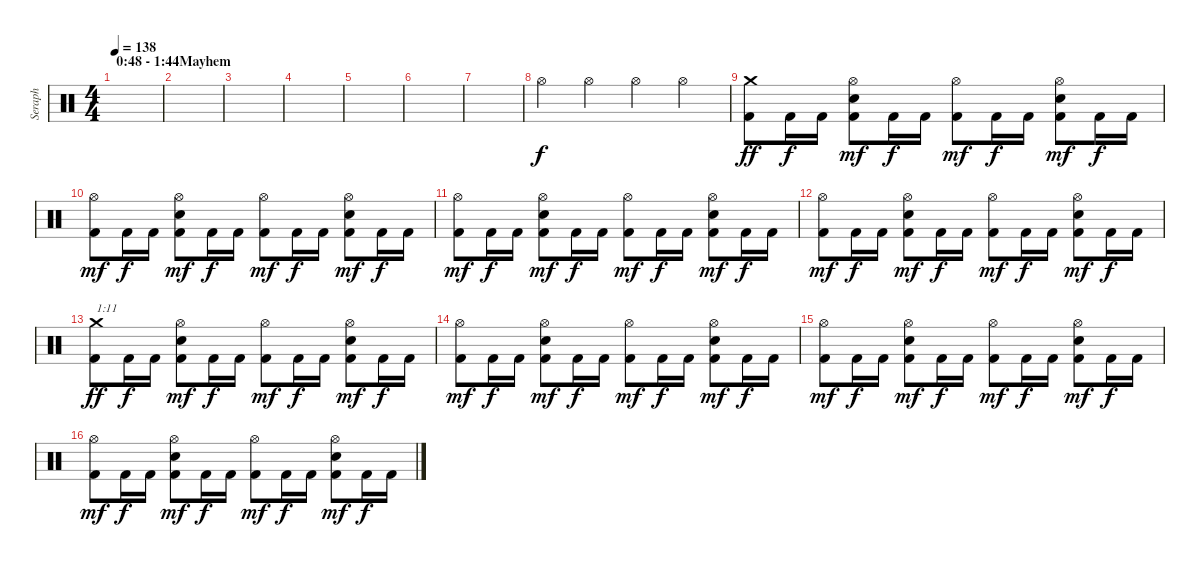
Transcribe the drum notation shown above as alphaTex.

\track ("Seraph" "Seraph") {instrument percussion}
\staff {score}
\articulation defaults
\ts (4 4)
\section ("" "0:48 - 1:44Mayhem")
\tempo 138
\clef neutral
\ks c
|
|
|
|
|
|
|
"Hi-Hat (open)".4 "Hi-Hat (open)".4 "Hi-Hat (open)".4 "Hi-Hat (open)".4 |
("Kick (hit) 2" "Crash medium (hit)").8{dy ff} "Kick (hit) 2".16{dy f} "Kick (hit) 2".16 ("Kick (hit) 2" "Electric Snare (hit)" "Hi-Hat (open)").8{dy mf} "Kick (hit) 2".16{dy f} "Kick (hit) 2".16 ("Kick (hit) 2" "Hi-Hat (open)").8{dy mf} "Kick (hit) 2".16{dy f} "Kick (hit) 2".16 ("Kick (hit) 2" "Electric Snare (hit)" "Hi-Hat (open)").8{dy mf} "Kick (hit) 2".16{dy f} "Kick (hit) 2".16 |
("Kick (hit) 2" "Hi-Hat (open)").8{dy mf} "Kick (hit) 2".16{dy f} "Kick (hit) 2".16 ("Kick (hit) 2" "Electric Snare (hit)" "Hi-Hat (open)").8{dy mf} "Kick (hit) 2".16{dy f} "Kick (hit) 2".16 ("Kick (hit) 2" "Hi-Hat (open)").8{dy mf} "Kick (hit) 2".16{dy f} "Kick (hit) 2".16 ("Kick (hit) 2" "Electric Snare (hit)" "Hi-Hat (open)").8{dy mf} "Kick (hit) 2".16{dy f} "Kick (hit) 2".16 |
("Kick (hit) 2" "Hi-Hat (open)").8{dy mf} "Kick (hit) 2".16{dy f} "Kick (hit) 2".16 ("Kick (hit) 2" "Electric Snare (hit)" "Hi-Hat (open)").8{dy mf} "Kick (hit) 2".16{dy f} "Kick (hit) 2".16 ("Kick (hit) 2" "Hi-Hat (open)").8{dy mf} "Kick (hit) 2".16{dy f} "Kick (hit) 2".16 ("Kick (hit) 2" "Electric Snare (hit)" "Hi-Hat (open)").8{dy mf} "Kick (hit) 2".16{dy f} "Kick (hit) 2".16 |
("Kick (hit) 2" "Hi-Hat (open)").8{dy mf} "Kick (hit) 2".16{dy f} "Kick (hit) 2".16 ("Kick (hit) 2" "Electric Snare (hit)" "Hi-Hat (open)").8{dy mf} "Kick (hit) 2".16{dy f} "Kick (hit) 2".16 ("Kick (hit) 2" "Hi-Hat (open)").8{dy mf} "Kick (hit) 2".16{dy f} "Kick (hit) 2".16 ("Kick (hit) 2" "Electric Snare (hit)" "Hi-Hat (open)").8{dy mf} "Kick (hit) 2".16{dy f} "Kick (hit) 2".16 |
("Kick (hit) 2" "Crash medium (hit)").8{txt "1:11" dy ff} "Kick (hit) 2".16{dy f} "Kick (hit) 2".16 ("Kick (hit) 2" "Electric Snare (hit)" "Hi-Hat (open)").8{dy mf} "Kick (hit) 2".16{dy f} "Kick (hit) 2".16 ("Kick (hit) 2" "Hi-Hat (open)").8{dy mf} "Kick (hit) 2".16{dy f} "Kick (hit) 2".16 ("Kick (hit) 2" "Electric Snare (hit)" "Hi-Hat (open)").8{dy mf} "Kick (hit) 2".16{dy f} "Kick (hit) 2".16 |
("Kick (hit) 2" "Hi-Hat (open)").8{dy mf} "Kick (hit) 2".16{dy f} "Kick (hit) 2".16 ("Kick (hit) 2" "Electric Snare (hit)" "Hi-Hat (open)").8{dy mf} "Kick (hit) 2".16{dy f} "Kick (hit) 2".16 ("Kick (hit) 2" "Hi-Hat (open)").8{dy mf} "Kick (hit) 2".16{dy f} "Kick (hit) 2".16 ("Kick (hit) 2" "Electric Snare (hit)" "Hi-Hat (open)").8{dy mf} "Kick (hit) 2".16{dy f} "Kick (hit) 2".16 |
("Kick (hit) 2" "Hi-Hat (open)").8{dy mf} "Kick (hit) 2".16{dy f} "Kick (hit) 2".16 ("Kick (hit) 2" "Electric Snare (hit)" "Hi-Hat (open)").8{dy mf} "Kick (hit) 2".16{dy f} "Kick (hit) 2".16 ("Kick (hit) 2" "Hi-Hat (open)").8{dy mf} "Kick (hit) 2".16{dy f} "Kick (hit) 2".16 ("Kick (hit) 2" "Electric Snare (hit)" "Hi-Hat (open)").8{dy mf} "Kick (hit) 2".16{dy f} "Kick (hit) 2".16 |
("Kick (hit) 2" "Hi-Hat (open)").8{dy mf} "Kick (hit) 2".16{dy f} "Kick (hit) 2".16 ("Kick (hit) 2" "Electric Snare (hit)" "Hi-Hat (open)").8{dy mf} "Kick (hit) 2".16{dy f} "Kick (hit) 2".16 ("Kick (hit) 2" "Hi-Hat (open)").8{dy mf} "Kick (hit) 2".16{dy f} "Kick (hit) 2".16 ("Kick (hit) 2" "Electric Snare (hit)" "Hi-Hat (open)").8{dy mf} "Kick (hit) 2".16{dy f} "Kick (hit) 2".16
